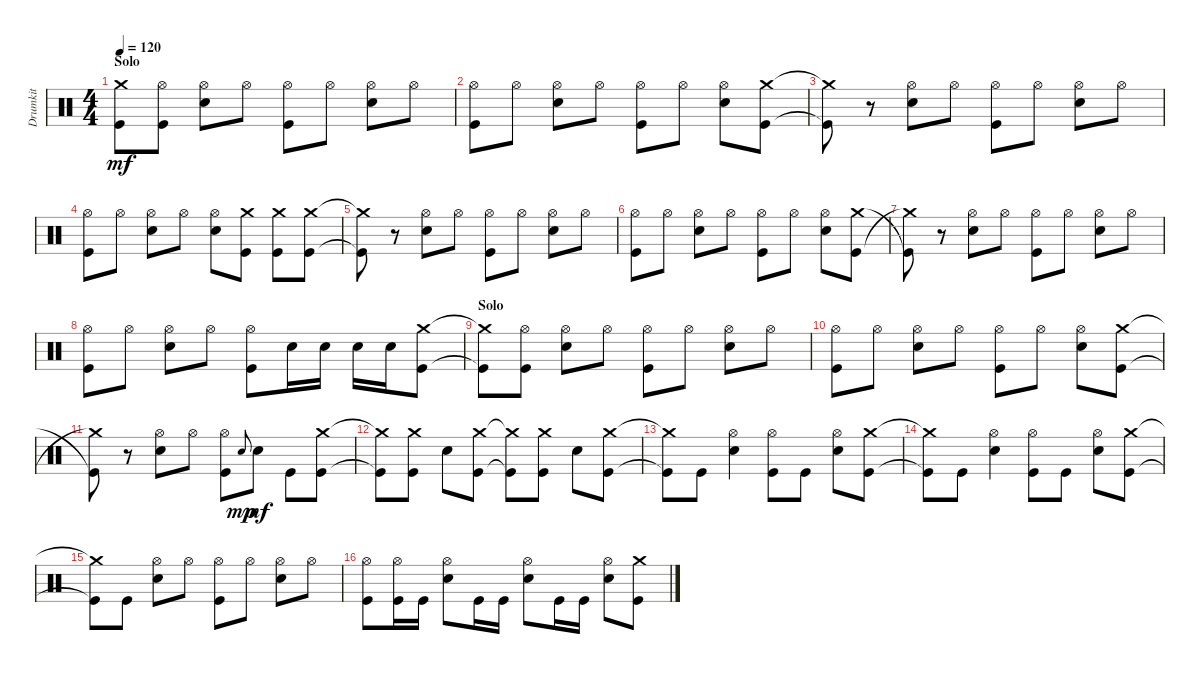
\track ("Drumkit" "Drumkit") {instrument percussion}
\staff {score}
\articulation defaults
\ts (4 4)
\section ("" "Solo")
\tempo 120
\clef neutral
\ks c
("Kick (hit)"{t} "Crash medium (hit)"{t}).8{dy mf} ("Kick (hit)" "Hi-Hat (open)").8 ("Snare (hit) 2" "Hi-Hat (open)").8 "Hi-Hat (open)".8 ("Hi-Hat (open)" "Kick (hit)").8 "Hi-Hat (open)".8 ("Hi-Hat (open)" "Snare (hit) 2").8 "Hi-Hat (open)".8 |
("Hi-Hat (open)" "Kick (hit)").8 "Hi-Hat (open)".8 ("Hi-Hat (open)" "Snare (hit) 2").8 "Hi-Hat (open)".8 ("Hi-Hat (open)" "Kick (hit)").8 "Hi-Hat (open)".8 ("Hi-Hat (open)" "Snare (hit) 2").8 ("Kick (hit)" "Crash medium (hit)").8 |
("Kick (hit)"{t} "Crash medium (hit)"{t}).8 r.8 ("Snare (hit) 2" "Hi-Hat (open)").8 "Hi-Hat (open)".8 ("Hi-Hat (open)" "Kick (hit)").8 "Hi-Hat (open)".8 ("Hi-Hat (open)" "Snare (hit) 2").8 "Hi-Hat (open)".8 |
("Hi-Hat (open)" "Kick (hit)").8 "Hi-Hat (open)".8 ("Hi-Hat (open)" "Snare (hit) 2").8 "Hi-Hat (open)".8 ("Snare (hit) 2" "Hi-Hat (open)").8 ("Kick (hit)" "Crash medium (hit)").8 ("Kick (hit)" "Crash medium (hit)").8 ("Kick (hit)" "Crash medium (hit)").8 |
("Kick (hit)"{t} "Crash medium (hit)"{t}).8 r.8 ("Snare (hit) 2" "Hi-Hat (open)").8 "Hi-Hat (open)".8 ("Hi-Hat (open)" "Kick (hit)").8 "Hi-Hat (open)".8 ("Hi-Hat (open)" "Snare (hit) 2").8 "Hi-Hat (open)".8 |
("Hi-Hat (open)" "Kick (hit)").8 "Hi-Hat (open)".8 ("Hi-Hat (open)" "Snare (hit) 2").8 "Hi-Hat (open)".8 ("Hi-Hat (open)" "Kick (hit)").8 "Hi-Hat (open)".8 ("Hi-Hat (open)" "Snare (hit) 2").8 ("Kick (hit)" "Crash medium (hit)").8 |
("Crash medium (hit)"{t} "Kick (hit)"{t}).8 r.8 ("Snare (hit) 2" "Hi-Hat (open)").8 "Hi-Hat (open)".8 ("Hi-Hat (open)" "Kick (hit)").8 "Hi-Hat (open)".8 ("Hi-Hat (open)" "Snare (hit) 2").8 "Hi-Hat (open)".8 |
("Hi-Hat (open)" "Kick (hit)").8 "Hi-Hat (open)".8 ("Hi-Hat (open)" "Snare (hit) 2").8 "Hi-Hat (open)".8 ("Hi-Hat (open)" "Kick (hit)").8 "Snare (hit) 2".16 "Snare (hit) 2".16 "Snare (hit) 2".16 "Snare (hit) 2".16 ("Kick (hit)" "Crash medium (hit)").8 |
\section ("" "Solo")
("Kick (hit)"{t} "Crash medium (hit)"{t}).8 ("Kick (hit)" "Hi-Hat (open)").8 ("Snare (hit) 2" "Hi-Hat (open)").8 "Hi-Hat (open)".8 ("Hi-Hat (open)" "Kick (hit)").8 "Hi-Hat (open)".8 ("Hi-Hat (open)" "Snare (hit) 2").8 "Hi-Hat (open)".8 |
("Hi-Hat (open)" "Kick (hit)").8 "Hi-Hat (open)".8 ("Hi-Hat (open)" "Snare (hit) 2").8 "Hi-Hat (open)".8 ("Hi-Hat (open)" "Kick (hit)").8 "Hi-Hat (open)".8 ("Hi-Hat (open)" "Snare (hit) 2").8 ("Kick (hit)" "Crash medium (hit)").8 |
("Crash medium (hit)"{t} "Kick (hit)"{t}).8 r.8 ("Snare (hit) 2" "Hi-Hat (open)").8 "Hi-Hat (open)".8 ("Hi-Hat (open)" "Kick (hit)").8 "Snare (hit)".8{gr onbeat dy mp} "Snare (hit) 2".8{dy mf} "Kick (hit)".8 ("Kick (hit)" "Crash medium (hit)").8 |
("Kick (hit)"{t} "Crash medium (hit)"{t}).8 ("Kick (hit)" "Crash medium (hit)").8 "Snare (hit) 2".8 ("Kick (hit)" "Crash medium (hit)").8 ("Kick (hit)"{t} "Crash medium (hit)"{t}).8 ("Kick (hit)" "Crash medium (hit)").8 "Snare (hit) 2".8 ("Kick (hit)" "Crash medium (hit)").8 |
("Kick (hit)"{t} "Crash medium (hit)"{t}).8 "Kick (hit)".8 ("Snare (hit) 2" "Hi-Hat (open)").4 ("Kick (hit)" "Hi-Hat (open)").8 "Kick (hit)".8 ("Snare (hit) 2" "Hi-Hat (open)").8 ("Kick (hit)" "Crash medium (hit)").8 |
("Kick (hit)"{t} "Crash medium (hit)"{t}).8 "Kick (hit)".8 ("Snare (hit) 2" "Hi-Hat (open)").4 ("Kick (hit)" "Hi-Hat (open)").8 "Kick (hit)".8 ("Snare (hit) 2" "Hi-Hat (open)").8 ("Kick (hit)" "Crash medium (hit)").8 |
("Kick (hit)"{t} "Crash medium (hit)"{t}).8 "Kick (hit)".8 ("Snare (hit) 2" "Hi-Hat (open)").8 "Hi-Hat (open)".8 ("Hi-Hat (open)" "Kick (hit)").8 "Hi-Hat (open)".8 ("Hi-Hat (open)" "Snare (hit) 2").8 "Hi-Hat (open)".8 |
("Hi-Hat (open)" "Kick (hit)").8 ("Hi-Hat (open)" "Kick (hit)").16 "Kick (hit)".16 ("Hi-Hat (open)" "Snare (hit) 2").8 "Kick (hit)".16 "Kick (hit)".16 ("Snare (hit) 2" "Hi-Hat (open)").8 "Kick (hit)".16 "Kick (hit)".16 ("Snare (hit) 2" "Hi-Hat (open)").8 ("Kick (hit)" "Crash medium (hit)").8
